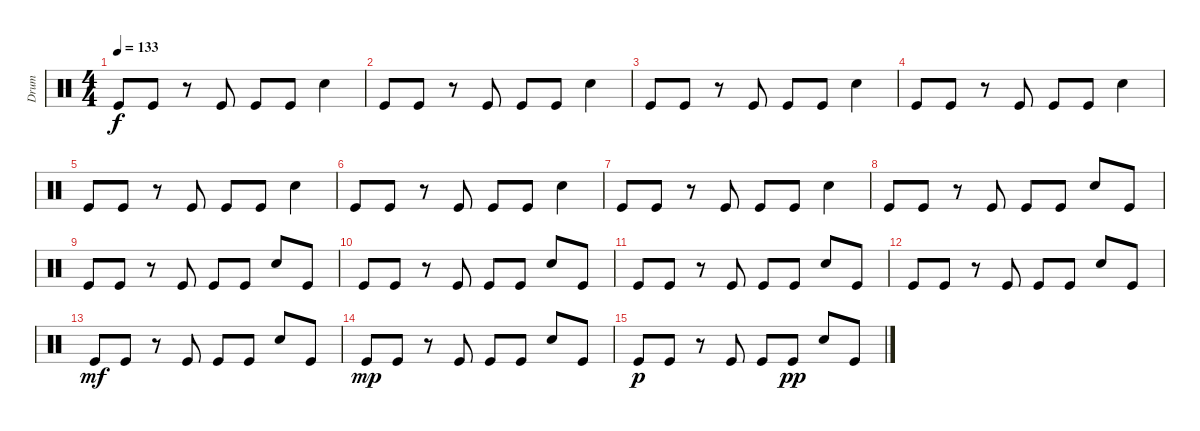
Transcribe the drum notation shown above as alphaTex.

\track ("Drum" "Drum") {instrument percussion}
\staff {score}
\articulation defaults
\ts (4 4)
\tempo 133
\clef neutral
\ks c "Kick (hit)".8{dy f} "Kick (hit)".8
r.8 "Kick (hit)".8 "Kick (hit)".8 "Kick (hit)".8 "Snare (hit) 2".4 |
"Kick (hit)".8 "Kick (hit)".8 r.8 "Kick (hit)".8 "Kick (hit)".8 "Kick (hit)".8 "Snare (hit) 2".4 |
"Kick (hit)".8 "Kick (hit)".8 r.8 "Kick (hit)".8 "Kick (hit)".8 "Kick (hit)".8 "Snare (hit) 2".4 |
"Kick (hit)".8 "Kick (hit)".8 r.8 "Kick (hit)".8 "Kick (hit)".8 "Kick (hit)".8 "Snare (hit) 2".4 |
"Kick (hit)".8 "Kick (hit)".8 r.8 "Kick (hit)".8 "Kick (hit)".8 "Kick (hit)".8 "Snare (hit) 2".4 |
"Kick (hit)".8 "Kick (hit)".8 r.8 "Kick (hit)".8 "Kick (hit)".8 "Kick (hit)".8 "Snare (hit) 2".4 |
"Kick (hit)".8 "Kick (hit)".8 r.8 "Kick (hit)".8 "Kick (hit)".8 "Kick (hit)".8 "Snare (hit) 2".4 |
"Kick (hit)".8 "Kick (hit)".8 r.8 "Kick (hit)".8 "Kick (hit)".8 "Kick (hit)".8 "Snare (hit) 2".8 "Kick (hit)".8 |
"Kick (hit)".8 "Kick (hit)".8 r.8 "Kick (hit)".8 "Kick (hit)".8 "Kick (hit)".8 "Snare (hit) 2".8 "Kick (hit)".8 |
"Kick (hit)".8 "Kick (hit)".8 r.8 "Kick (hit)".8 "Kick (hit)".8 "Kick (hit)".8 "Snare (hit) 2".8 "Kick (hit)".8 |
"Kick (hit)".8 "Kick (hit)".8 r.8 "Kick (hit)".8 "Kick (hit)".8 "Kick (hit)".8 "Snare (hit) 2".8 "Kick (hit)".8 |
"Kick (hit)".8 "Kick (hit)".8 r.8 "Kick (hit)".8 "Kick (hit)".8 "Kick (hit)".8 "Snare (hit) 2".8 "Kick (hit)".8 |
"Kick (hit)".8{dy mf} "Kick (hit)".8 r.8 "Kick (hit)".8 "Kick (hit)".8 "Kick (hit)".8 "Snare (hit) 2".8 "Kick (hit)".8 |
"Kick (hit)".8{dy mp} "Kick (hit)".8 r.8 "Kick (hit)".8 "Kick (hit)".8 "Kick (hit)".8 "Snare (hit) 2".8 "Kick (hit)".8 |
"Kick (hit)".8{dy p} "Kick (hit)".8 r.8 "Kick (hit)".8 "Kick (hit)".8 "Kick (hit)".8{dy pp} "Snare (hit) 2".8 "Kick (hit)".8
